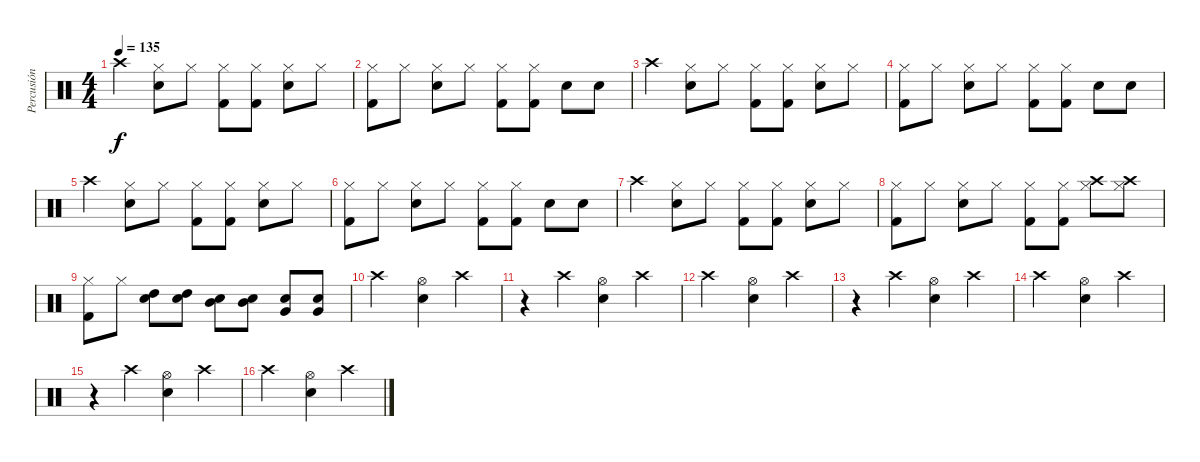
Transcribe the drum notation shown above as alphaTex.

\track ("Percusión" "Percusión") {instrument percussion}
\staff {score}
\articulation defaults
\ts (4 4)
\tempo 135
\clef neutral
\ks c "Crash high (hit)".4{dy f}
("Snare (hit) 2" "Hi-Hat (closed)").8 "Hi-Hat (closed)".8 ("Kick (hit) 2" "Hi-Hat (closed)").8 ("Kick (hit) 2" "Hi-Hat (closed)").8 ("Snare (hit) 2" "Hi-Hat (closed)").8 "Hi-Hat (closed)".8 |
("Kick (hit) 2" "Hi-Hat (closed)").8 "Hi-Hat (closed)".8 ("Snare (hit) 2" "Hi-Hat (closed)").8 "Hi-Hat (closed)".8 ("Kick (hit) 2" "Hi-Hat (closed)").8 ("Kick (hit) 2" "Hi-Hat (closed)").8 "Snare (hit) 2".8 "Snare (hit) 2".8 |
"Crash high (hit)".4 ("Snare (hit) 2" "Hi-Hat (closed)").8 "Hi-Hat (closed)".8 ("Kick (hit) 2" "Hi-Hat (closed)").8 ("Kick (hit) 2" "Hi-Hat (closed)").8 ("Snare (hit) 2" "Hi-Hat (closed)").8 "Hi-Hat (closed)".8 |
("Kick (hit) 2" "Hi-Hat (closed)").8 "Hi-Hat (closed)".8 ("Snare (hit) 2" "Hi-Hat (closed)").8 "Hi-Hat (closed)".8 ("Kick (hit) 2" "Hi-Hat (closed)").8 ("Kick (hit) 2" "Hi-Hat (closed)").8 "Snare (hit) 2".8 "Snare (hit) 2".8 |
"Crash high (hit)".4 ("Snare (hit) 2" "Hi-Hat (closed)").8 "Hi-Hat (closed)".8 ("Kick (hit) 2" "Hi-Hat (closed)").8 ("Kick (hit) 2" "Hi-Hat (closed)").8 ("Snare (hit) 2" "Hi-Hat (closed)").8 "Hi-Hat (closed)".8 |
("Kick (hit) 2" "Hi-Hat (closed)").8 "Hi-Hat (closed)".8 ("Snare (hit) 2" "Hi-Hat (closed)").8 "Hi-Hat (closed)".8 ("Kick (hit) 2" "Hi-Hat (closed)").8 ("Kick (hit) 2" "Hi-Hat (closed)").8 "Snare (hit) 2".8 "Snare (hit) 2".8 |
"Crash high (hit)".4 ("Snare (hit) 2" "Hi-Hat (closed)").8 "Hi-Hat (closed)".8 ("Kick (hit) 2" "Hi-Hat (closed)").8 ("Kick (hit) 2" "Hi-Hat (closed)").8 ("Snare (hit) 2" "Hi-Hat (closed)").8 "Hi-Hat (closed)".8 |
("Kick (hit) 2" "Hi-Hat (closed)").8 "Hi-Hat (closed)".8 ("Snare (hit) 2" "Hi-Hat (closed)").8 "Hi-Hat (closed)".8 ("Kick (hit) 2" "Hi-Hat (closed)").8 ("Kick (hit) 2" "Hi-Hat (closed)").8 ("Crash high (hit)" "Hi-Hat (closed)").8 ("Crash high (hit)" "Hi-Hat (closed)").8 |
("Kick (hit) 2" "Hi-Hat (closed)").8 "Hi-Hat (closed)".8 ("Electric Snare (hit)" "High Tom (hit)").8 ("Electric Snare (hit)" "High Tom (hit)").8 ("Electric Snare (hit)" "Mid Tom (hit)").8 ("Electric Snare (hit)" "Mid Tom (hit)").8 ("Electric Snare (hit)" "Very Low Tom (hit)").8 ("Electric Snare (hit)" "Very Low Tom (hit)").8 |
"Crash high (hit)".2 ("Snare (hit) 2" "Hi-Hat (open)").4 "Crash high (hit)".4 |
r.4 "Crash high (hit)".4 ("Snare (hit) 2" "Hi-Hat (open)").4 "Crash high (hit)".4 |
"Crash high (hit)".2 ("Snare (hit) 2" "Hi-Hat (open)").4 "Crash high (hit)".4 |
r.4 "Crash high (hit)".4 ("Snare (hit) 2" "Hi-Hat (open)").4 "Crash high (hit)".4 |
"Crash high (hit)".2 ("Snare (hit) 2" "Hi-Hat (open)").4 "Crash high (hit)".4 |
r.4 "Crash high (hit)".4 ("Snare (hit) 2" "Hi-Hat (open)").4 "Crash high (hit)".4 |
"Crash high (hit)".2 ("Snare (hit) 2" "Hi-Hat (open)").4 "Crash high (hit)".4
